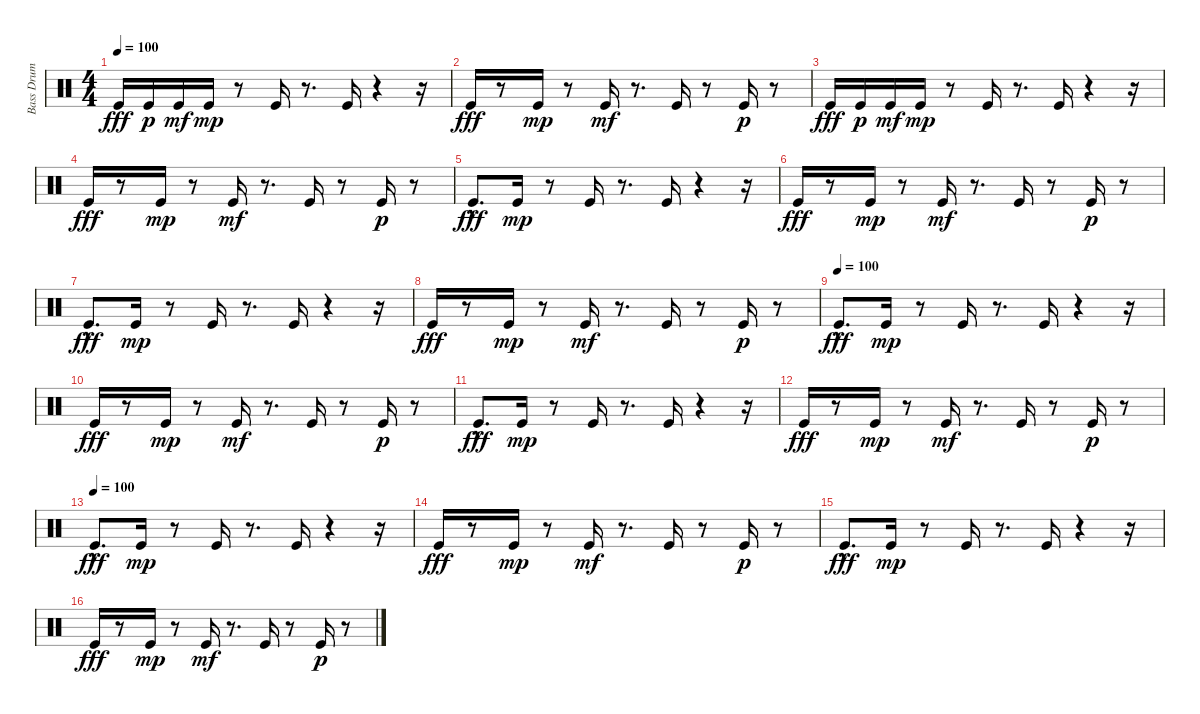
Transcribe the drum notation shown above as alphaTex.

\track ("Bass Drum" "Bass Drum") {instrument percussion}
\staff {score}
\articulation defaults
\ts (4 4)
\tempo 100
\clef neutral
\ks c "Kick (hit)".16{dy fff} "Kick (hit)".16{dy p} "Kick (hit)".16{dy mf} "Kick (hit)".16{dy mp}
r.8 "Kick (hit)".16 r.8{d} "Kick (hit)".16 r.4 r.16 |
"Kick (hit)".16{dy fff} r.8 "Kick (hit)".16{dy mp} r.8 "Kick (hit)".16{dy mf} r.8{d} "Kick (hit)".16 r.8 "Kick (hit)".16{dy p} r.8 |
"Kick (hit)".16{dy fff} "Kick (hit)".16{dy p} "Kick (hit)".16{dy mf} "Kick (hit)".16{dy mp} r.8 "Kick (hit)".16 r.8{d} "Kick (hit)".16 r.4 r.16 |
"Kick (hit)".16{dy fff} r.8 "Kick (hit)".16{dy mp} r.8 "Kick (hit)".16{dy mf} r.8{d} "Kick (hit)".16 r.8 "Kick (hit)".16{dy p} r.8 |
"Kick (hit)"{hac}.8{d dy fff} "Kick (hit)".16{dy mp} r.8 "Kick (hit)".16 r.8{d} "Kick (hit)".16 r.4 r.16 |
"Kick (hit)".16{dy fff} r.8 "Kick (hit)".16{dy mp} r.8 "Kick (hit)".16{dy mf} r.8{d} "Kick (hit)".16 r.8 "Kick (hit)".16{dy p} r.8 |
"Kick (hit)"{hac}.8{d dy fff} "Kick (hit)".16{dy mp} r.8 "Kick (hit)".16 r.8{d} "Kick (hit)".16 r.4 r.16 |
"Kick (hit)".16{dy fff} r.8 "Kick (hit)".16{dy mp} r.8 "Kick (hit)".16{dy mf} r.8{d} "Kick (hit)".16 r.8 "Kick (hit)".16{dy p} r.8 |
\tempo (100)
"Kick (hit)"{hac}.8{d dy fff} "Kick (hit)".16{dy mp} r.8 "Kick (hit)".16 r.8{d} "Kick (hit)".16 r.4 r.16 |
"Kick (hit)".16{dy fff} r.8 "Kick (hit)".16{dy mp} r.8 "Kick (hit)".16{dy mf} r.8{d} "Kick (hit)".16 r.8 "Kick (hit)".16{dy p} r.8 |
"Kick (hit)"{hac}.8{d dy fff} "Kick (hit)".16{dy mp} r.8 "Kick (hit)".16 r.8{d} "Kick (hit)".16 r.4 r.16 |
"Kick (hit)".16{dy fff} r.8 "Kick (hit)".16{dy mp} r.8 "Kick (hit)".16{dy mf} r.8{d} "Kick (hit)".16 r.8 "Kick (hit)".16{dy p} r.8 |
\tempo (100)
"Kick (hit)"{hac}.8{d dy fff} "Kick (hit)".16{dy mp} r.8 "Kick (hit)".16 r.8{d} "Kick (hit)".16 r.4 r.16 |
"Kick (hit)".16{dy fff} r.8 "Kick (hit)".16{dy mp} r.8 "Kick (hit)".16{dy mf} r.8{d} "Kick (hit)".16 r.8 "Kick (hit)".16{dy p} r.8 |
"Kick (hit)"{hac}.8{d dy fff} "Kick (hit)".16{dy mp} r.8 "Kick (hit)".16 r.8{d} "Kick (hit)".16 r.4 r.16 |
"Kick (hit)".16{dy fff} r.8 "Kick (hit)".16{dy mp} r.8 "Kick (hit)".16{dy mf} r.8{d} "Kick (hit)".16 r.8 "Kick (hit)".16{dy p} r.8
